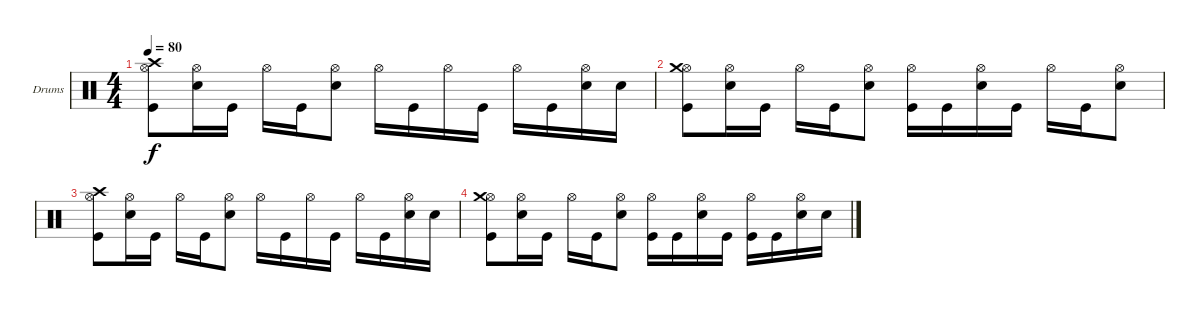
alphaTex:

\defaultSystemsLayout 4
\bracketExtendMode groupsimilarinstruments
\firstSystemTrackNameOrientation horizontal
\otherSystemsTrackNameOrientation horizontal
\track ("Drumkit" "Drums") {instrument percussion}
\staff {score}
\articulation defaults
\ts (4 4)
\tempo 80
\clef neutral
\scale
0.333333
\ks c
("Hi-Hat (open)" "Kick (hit)" "Crash high (hit)").8{dy f} ("Hi-Hat (open)" "Snare (hit) 2").16 "Kick (hit)".16 "Hi-Hat (open)".16 "Kick (hit)".16 ("Snare (hit) 2" "Hi-Hat (open)").8 "Hi-Hat (open)".16 "Kick (hit)".16 "Hi-Hat (open)".16 "Kick (hit)".16 "Hi-Hat (open)".16 "Kick (hit)".16 ("Snare (hit) 2" "Hi-Hat (open)").16 "Snare (hit) 2".16 |
\scale
0.333333 ("Hi-Hat (open)" "Kick (hit)" "Crash medium (hit)").8 ("Hi-Hat (open)" "Snare (hit) 2").16 "Kick (hit)".16 "Hi-Hat (open)".16 "Kick (hit)".16 ("Snare (hit) 2" "Hi-Hat (open)").8 ("Hi-Hat (open)" "Kick (hit)").16 "Kick (hit)".16 ("Hi-Hat (open)" "Snare (hit) 2").16 "Kick (hit)".16 "Hi-Hat (open)".16 "Kick (hit)".16 ("Snare (hit) 2" "Hi-Hat (open)").8 |
("Hi-Hat (open)" "Kick (hit)" "Crash high (hit)").8 ("Hi-Hat (open)" "Snare (hit) 2").16 "Kick (hit)".16 "Hi-Hat (open)".16 "Kick (hit)".16 ("Snare (hit) 2" "Hi-Hat (open)").8 "Hi-Hat (open)".16 "Kick (hit)".16 "Hi-Hat (open)".16 "Kick (hit)".16 "Hi-Hat (open)".16 "Kick (hit)".16 ("Snare (hit) 2" "Hi-Hat (open)").16 "Snare (hit) 2".16 |
("Hi-Hat (open)" "Kick (hit)" "Crash medium (hit)").8 ("Hi-Hat (open)" "Snare (hit) 2").16 "Kick (hit)".16 "Hi-Hat (open)".16 "Kick (hit)".16 ("Snare (hit) 2" "Hi-Hat (open)").8 ("Hi-Hat (open)" "Kick (hit)").16 "Kick (hit)".16 ("Hi-Hat (open)" "Snare (hit) 2").16 "Kick (hit)".16 ("Hi-Hat (open)" "Kick (hit)").16 "Kick (hit)".16 ("Snare (hit) 2" "Hi-Hat (open)").16 "Snare (hit) 2".16
